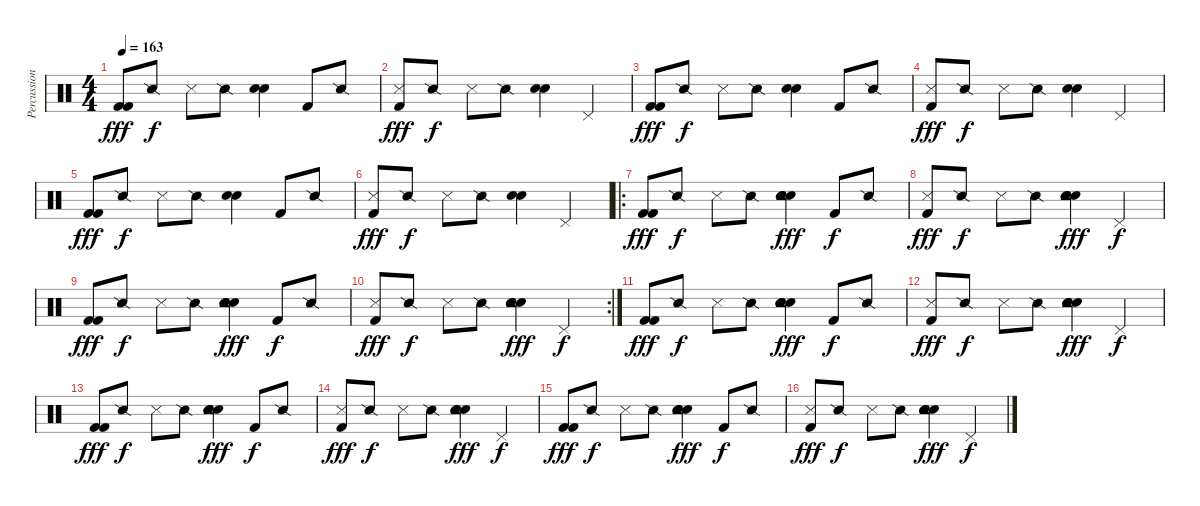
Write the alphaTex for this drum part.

\track ("Percussion" "Percussion") {instrument percussion}
\staff {score}
\articulation defaults
\ts (4 4)
\tempo 163
\clef neutral
\ks c
("Kick (hit) 2" "Kick (hit) 2").8{dy fff} "Snare (side stick) 2".8{dy f} "Metronome (hit)".8 "Snare (side stick) 2".8 ("Snare (hit) 2" "Hand Clap (hit)").4 "Kick (hit) 2".8 "Snare (side stick) 2".8 |
("Metronome (hit)" "Kick (hit) 2").8{dy fff} "Snare (side stick) 2".8{dy f} "Metronome (hit)".8 "Snare (side stick) 2".8 ("Snare (hit) 2" "Hand Clap (hit)").4 "Pedal Hi-Hat (hit)".4 |
("Kick (hit) 2" "Kick (hit) 2").8{dy fff} "Snare (side stick) 2".8{dy f} "Metronome (hit)".8 "Snare (side stick) 2".8 ("Snare (hit) 2" "Hand Clap (hit)").4 "Kick (hit) 2".8 "Snare (side stick) 2".8 |
("Metronome (hit)" "Kick (hit) 2").8{dy fff} "Snare (side stick) 2".8{dy f} "Metronome (hit)".8 "Snare (side stick) 2".8 ("Snare (hit) 2" "Hand Clap (hit)").4 "Pedal Hi-Hat (hit)".4 |
("Kick (hit) 2" "Kick (hit) 2").8{dy fff} "Snare (side stick) 2".8{dy f} "Metronome (hit)".8 "Snare (side stick) 2".8 ("Snare (hit) 2" "Hand Clap (hit)").4 "Kick (hit) 2".8 "Snare (side stick) 2".8 |
("Metronome (hit)" "Kick (hit) 2").8{dy fff} "Snare (side stick) 2".8{dy f} "Metronome (hit)".8 "Snare (side stick) 2".8 ("Snare (hit) 2" "Hand Clap (hit)").4 "Pedal Hi-Hat (hit)".4 |
\ro
("Kick (hit) 2" "Kick (hit) 2").8{dy fff} "Snare (side stick) 2".8{dy f} "Metronome (hit)".8 "Snare (side stick) 2".8 ("Snare (hit) 2" "Hand Clap (hit)" "Tambourine (hit)" "Electric Snare (hit)").4{dy fff} "Kick (hit) 2".8{dy f} "Snare (side stick) 2".8 |
("Metronome (hit)" "Kick (hit) 2").8{dy fff} "Snare (side stick) 2".8{dy f} "Metronome (hit)".8 "Snare (side stick) 2".8 ("Snare (hit) 2" "Hand Clap (hit)" "Tambourine (hit)" "Electric Snare (hit)").4{dy fff} "Pedal Hi-Hat (hit)".4{dy f} |
("Kick (hit) 2" "Kick (hit) 2").8{dy fff} "Snare (side stick) 2".8{dy f} "Metronome (hit)".8 "Snare (side stick) 2".8 ("Snare (hit) 2" "Hand Clap (hit)" "Tambourine (hit)" "Electric Snare (hit)").4{dy fff} "Kick (hit) 2".8{dy f} "Snare (side stick) 2".8 |
\rc 2
("Metronome (hit)" "Kick (hit) 2").8{dy fff} "Snare (side stick) 2".8{dy f} "Metronome (hit)".8 "Snare (side stick) 2".8 ("Snare (hit) 2" "Hand Clap (hit)" "Tambourine (hit)" "Electric Snare (hit)").4{dy fff} "Pedal Hi-Hat (hit)".4{dy f} |
("Kick (hit) 2" "Kick (hit) 2").8{dy fff} "Snare (side stick) 2".8{dy f} "Metronome (hit)".8 "Snare (side stick) 2".8 ("Snare (hit) 2" "Hand Clap (hit)" "Tambourine (hit)" "Electric Snare (hit)").4{dy fff} "Kick (hit) 2".8{dy f} "Snare (side stick) 2".8 |
("Metronome (hit)" "Kick (hit) 2").8{dy fff} "Snare (side stick) 2".8{dy f} "Metronome (hit)".8 "Snare (side stick) 2".8 ("Snare (hit) 2" "Hand Clap (hit)" "Tambourine (hit)" "Electric Snare (hit)").4{dy fff} "Pedal Hi-Hat (hit)".4{dy f} |
("Kick (hit) 2" "Kick (hit) 2").8{dy fff} "Snare (side stick) 2".8{dy f} "Metronome (hit)".8 "Snare (side stick) 2".8 ("Snare (hit) 2" "Hand Clap (hit)" "Tambourine (hit)" "Electric Snare (hit)").4{dy fff} "Kick (hit) 2".8{dy f} "Snare (side stick) 2".8 |
("Metronome (hit)" "Kick (hit) 2").8{dy fff} "Snare (side stick) 2".8{dy f} "Metronome (hit)".8 "Snare (side stick) 2".8 ("Snare (hit) 2" "Hand Clap (hit)" "Tambourine (hit)" "Electric Snare (hit)").4{dy fff} "Pedal Hi-Hat (hit)".4{dy f} |
("Kick (hit) 2" "Kick (hit) 2").8{dy fff} "Snare (side stick) 2".8{dy f} "Metronome (hit)".8 "Snare (side stick) 2".8 ("Snare (hit) 2" "Hand Clap (hit)" "Tambourine (hit)" "Electric Snare (hit)").4{dy fff} "Kick (hit) 2".8{dy f} "Snare (side stick) 2".8 |
("Metronome (hit)" "Kick (hit) 2").8{dy fff} "Snare (side stick) 2".8{dy f} "Metronome (hit)".8 "Snare (side stick) 2".8 ("Snare (hit) 2" "Hand Clap (hit)" "Tambourine (hit)" "Electric Snare (hit)").4{dy fff} "Pedal Hi-Hat (hit)".4{dy f}
